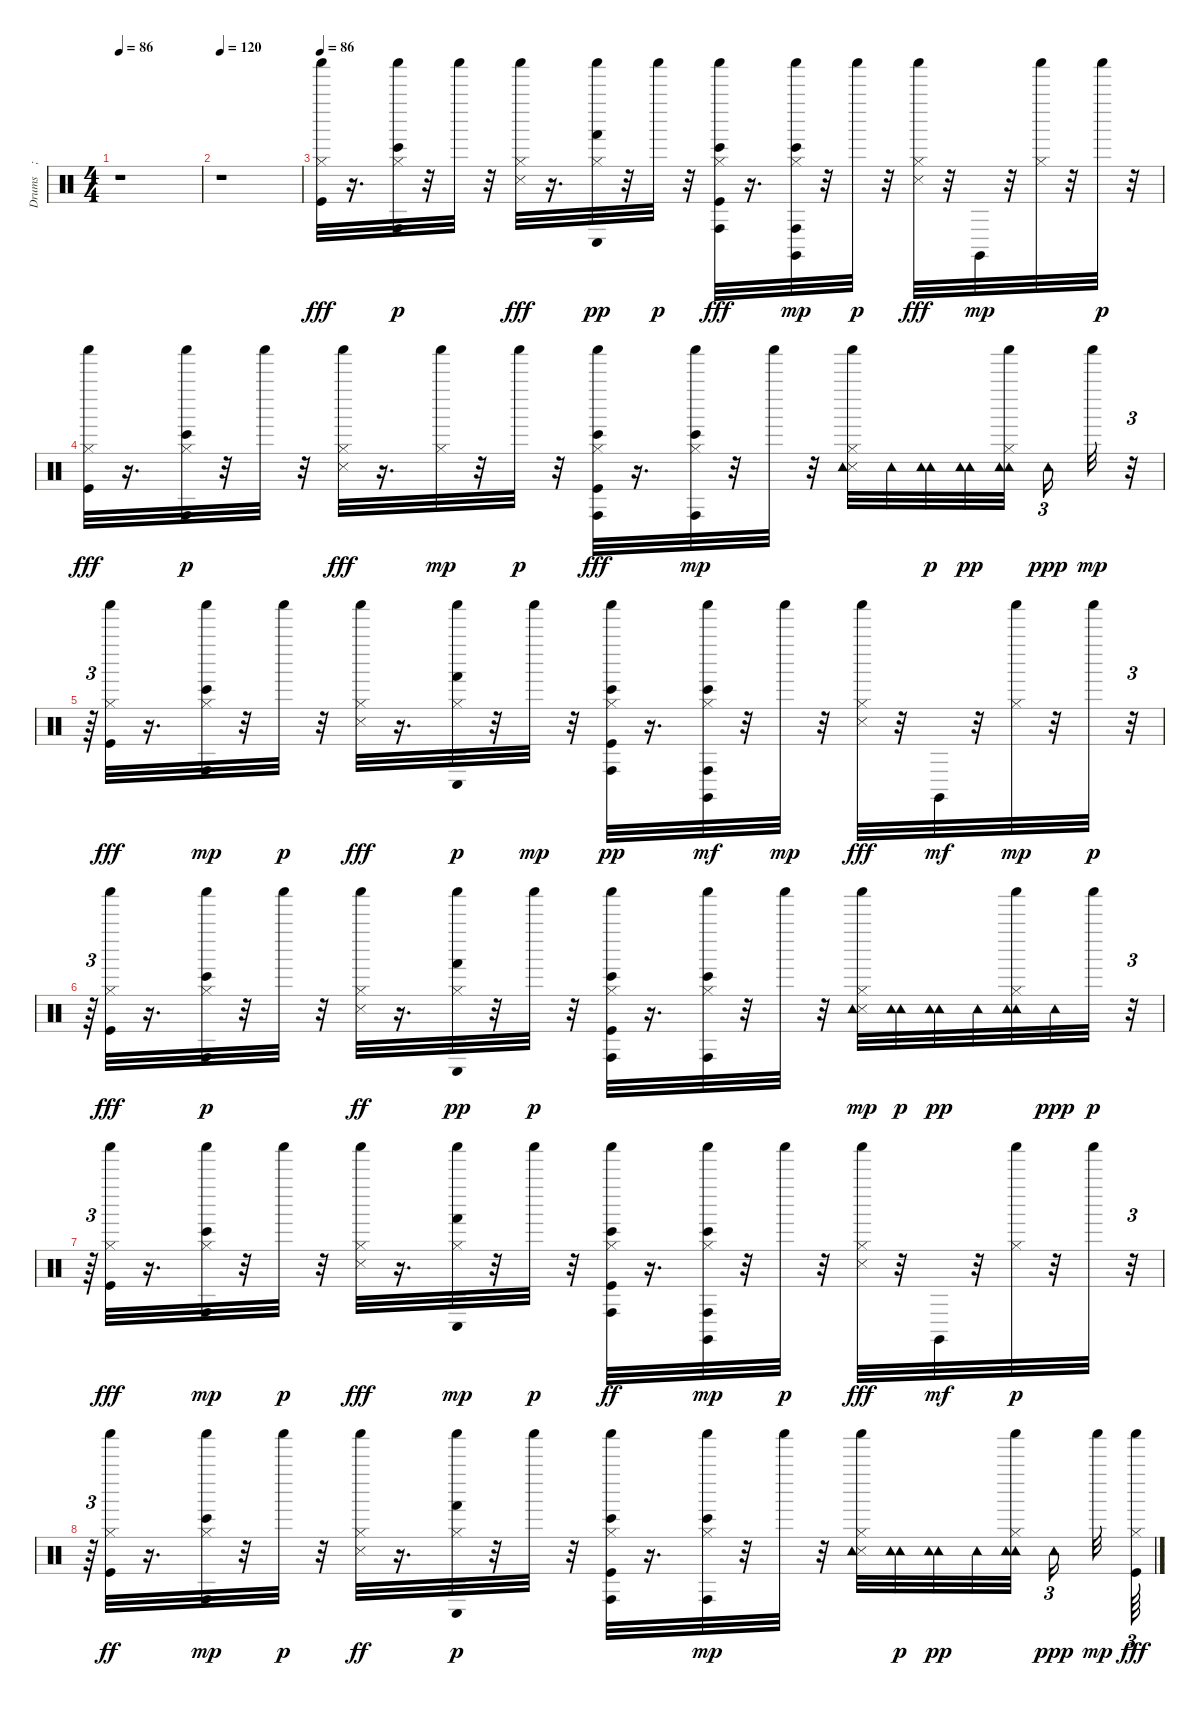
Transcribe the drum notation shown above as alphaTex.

\track ("Drums    ; Standard" "Drums    ;") {instrument percussion}
\staff {score}
\articulation defaults
\ts (4 4)
\tempo 86
\clef neutral
\ks c
r.1{dy fff} |
\tempo 120
r.1 |
\tempo 86
("Kick (hit)" "Shaker (hit)" "Hi-Hat (closed)").32 r.16{d} ("Shaker (hit)" "Hi-Hat (closed)" "Conga high (hit)" "Bongo High (hit)").32{dy p} r.32 "Shaker (hit)".32 r.32 ("Shaker (hit)" "Hi-Hat (closed)" "Snare (side stick) 3").32{dy fff} r.16{d} ("Shaker (hit)" "Hi-Hat (closed)" "Conga low (hit)" "Hand (hit)").32{dy pp} r.32 "Shaker (hit)".32{dy p} r.32 ("Kick (hit)" "Shaker (hit)" "Conga high (hit)" "Bongo High (hit)" "Hi-Hat (closed)").32{dy fff} r.16{d} ("Conga high (hit)" "Bongo High (hit)" "Shaker (hit)" "Hi-Hat (closed)" "Claves (hit)").32{dy mp} r.32 "Shaker (hit)".32{dy p} r.32 ("Snare (side stick) 3" "Shaker (hit)" "Hi-Hat (closed)").32{dy fff} r.32 "Claves (hit)".32{dy mp} r.32 ("Shaker (hit)" "Hi-Hat (closed)").32 r.32 "Shaker (hit)".32{dy p} r.32 |
("Kick (hit)" "Shaker (hit)" "Hi-Hat (closed)").32{dy fff} r.16{d} ("Shaker (hit)" "Hi-Hat (closed)" "Conga high (hit)" "Bongo High (hit)").32{dy p} r.32 "Shaker (hit)".32 r.32 ("Shaker (hit)" "Hi-Hat (closed)" "Snare (side stick) 3").32{dy fff} r.16{d} ("Shaker (hit)" "Hi-Hat (closed)").32{dy mp} r.32 "Shaker (hit)".32{dy p} r.32 ("Kick (hit)" "Shaker (hit)" "Conga high (hit)" "Bongo High (hit)" "Hi-Hat (closed)").32{dy fff} r.16{d} ("Conga high (hit)" "Bongo High (hit)" "Shaker (hit)" "Hi-Hat (closed)").32{dy mp} r.32 "Shaker (hit)".32 r.32 ("Snare (side stick) 3" "Shaker (hit)" "Hi-Hat (closed)" "Tambourine (hit)").32 "Tambourine (hit)".32 ("Tambourine (hit)" "Tambourine (hit)").32{dy p} ("Tambourine (hit)" "Tambourine (hit)").32{dy pp} ("Tambourine (hit)" "Shaker (hit)" "Hi-Hat (closed)" "Tambourine (hit)").32 "Tambourine (hit)".16{tu (3 2) dy ppp} "Shaker (hit)".32{dy mp} r.32{tu (3 2)} |
r.64{tu (3 2)} ("Kick (hit)" "Shaker (hit)" "Hi-Hat (closed)").32{dy fff} r.16{d} ("Conga high (hit)" "Bongo High (hit)" "Shaker (hit)" "Hi-Hat (closed)").32{dy mp} r.32 "Shaker (hit)".32{dy p} r.32 ("Shaker (hit)" "Hi-Hat (closed)" "Snare (side stick) 3").32{dy fff} r.16{d} ("Conga low (hit)" "Hand (hit)" "Shaker (hit)" "Hi-Hat (closed)").32{dy p} r.32 "Shaker (hit)".32{dy mp} r.32 ("Kick (hit)" "Hi-Hat (closed)" "Conga high (hit)" "Bongo High (hit)" "Shaker (hit)").32{dy pp} r.16{d} ("Claves (hit)" "Conga high (hit)" "Bongo High (hit)" "Shaker (hit)" "Hi-Hat (closed)").32{dy mf} r.32 "Shaker (hit)".32{dy mp} r.32 ("Snare (side stick) 3" "Shaker (hit)" "Hi-Hat (closed)").32{dy fff} r.32 "Claves (hit)".32{dy mf} r.32 ("Shaker (hit)" "Hi-Hat (closed)").32{dy mp} r.32 "Shaker (hit)".32{dy p} r.32{tu (3 2)} |
r.64{tu (3 2)} ("Shaker (hit)" "Kick (hit)" "Hi-Hat (closed)").32{dy fff} r.16{d} ("Hi-Hat (closed)" "Shaker (hit)" "Conga high (hit)" "Bongo High (hit)").32{dy p} r.32 "Shaker (hit)".32 r.32 ("Snare (side stick) 3" "Hi-Hat (closed)" "Shaker (hit)").32{dy ff} r.16{d} ("Hi-Hat (closed)" "Shaker (hit)" "Conga low (hit)" "Hand (hit)").32{dy pp} r.32 "Shaker (hit)".32{dy p} r.32 ("Kick (hit)" "Shaker (hit)" "Hi-Hat (closed)" "Conga high (hit)" "Bongo High (hit)").32 r.16{d} ("Shaker (hit)" "Hi-Hat (closed)" "Conga high (hit)" "Bongo High (hit)").32 r.32 "Shaker (hit)".32 r.32 ("Hi-Hat (closed)" "Shaker (hit)" "Snare (side stick) 3" "Tambourine (hit)").32{dy mp} ("Tambourine (hit)" "Tambourine (hit)").32{dy p} ("Tambourine (hit)" "Tambourine (hit)").32{dy pp} "Tambourine (hit)".32 ("Tambourine (hit)" "Shaker (hit)" "Hi-Hat (closed)" "Tambourine (hit)").32 "Tambourine (hit)".32{dy ppp} "Shaker (hit)".32{dy p} r.32{tu (3 2)} |
r.64{tu (3 2)} ("Shaker (hit)" "Kick (hit)" "Hi-Hat (closed)").32{dy fff} r.16{d} ("Conga high (hit)" "Bongo High (hit)" "Shaker (hit)" "Hi-Hat (closed)").32{dy mp} r.32 "Shaker (hit)".32{dy p} r.32 ("Shaker (hit)" "Snare (side stick) 3" "Hi-Hat (closed)").32{dy fff} r.16{d} ("Conga low (hit)" "Hand (hit)" "Shaker (hit)" "Hi-Hat (closed)").32{dy mp} r.32 "Shaker (hit)".32{dy p} r.32 ("Conga high (hit)" "Bongo High (hit)" "Kick (hit)" "Shaker (hit)" "Hi-Hat (closed)").32{dy ff} r.16{d} ("Claves (hit)" "Conga high (hit)" "Bongo High (hit)" "Shaker (hit)" "Hi-Hat (closed)").32{dy mp} r.32 "Shaker (hit)".32{dy p} r.32 ("Snare (side stick) 3" "Shaker (hit)" "Hi-Hat (closed)").32{dy fff} r.32 "Claves (hit)".32{dy mf} r.32 ("Hi-Hat (closed)" "Shaker (hit)").32{dy p} r.32 "Shaker (hit)".32 r.32{tu (3 2)} |
r.64{tu (3 2)} ("Kick (hit)" "Hi-Hat (closed)" "Shaker (hit)").32{dy ff} r.16{d} ("Shaker (hit)" "Hi-Hat (closed)" "Conga high (hit)" "Bongo High (hit)").32{dy mp} r.32 "Shaker (hit)".32{dy p} r.32 ("Snare (side stick) 3" "Shaker (hit)" "Hi-Hat (closed)").32{dy ff} r.16{d} ("Conga low (hit)" "Hand (hit)" "Shaker (hit)" "Hi-Hat (closed)").32{dy p} r.32 "Shaker (hit)".32 r.32 ("Kick (hit)" "Shaker (hit)" "Hi-Hat (closed)" "Conga high (hit)" "Bongo High (hit)").32 r.16{d} ("Shaker (hit)" "Hi-Hat (closed)" "Conga high (hit)" "Bongo High (hit)").32{dy mp} r.32 "Shaker (hit)".32 r.32 ("Shaker (hit)" "Snare (side stick) 3" "Hi-Hat (closed)" "Tambourine (hit)").32 ("Tambourine (hit)" "Tambourine (hit)").32{dy p} ("Tambourine (hit)" "Tambourine (hit)").32{dy pp} "Tambourine (hit)".32 ("Tambourine (hit)" "Shaker (hit)" "Hi-Hat (closed)" "Tambourine (hit)").32 "Tambourine (hit)".16{tu (3 2) dy ppp} "Shaker (hit)".32{dy mp} ("Kick (hit)" "Shaker (hit)" "Hi-Hat (closed)").64{tu (3 2) dy fff}
